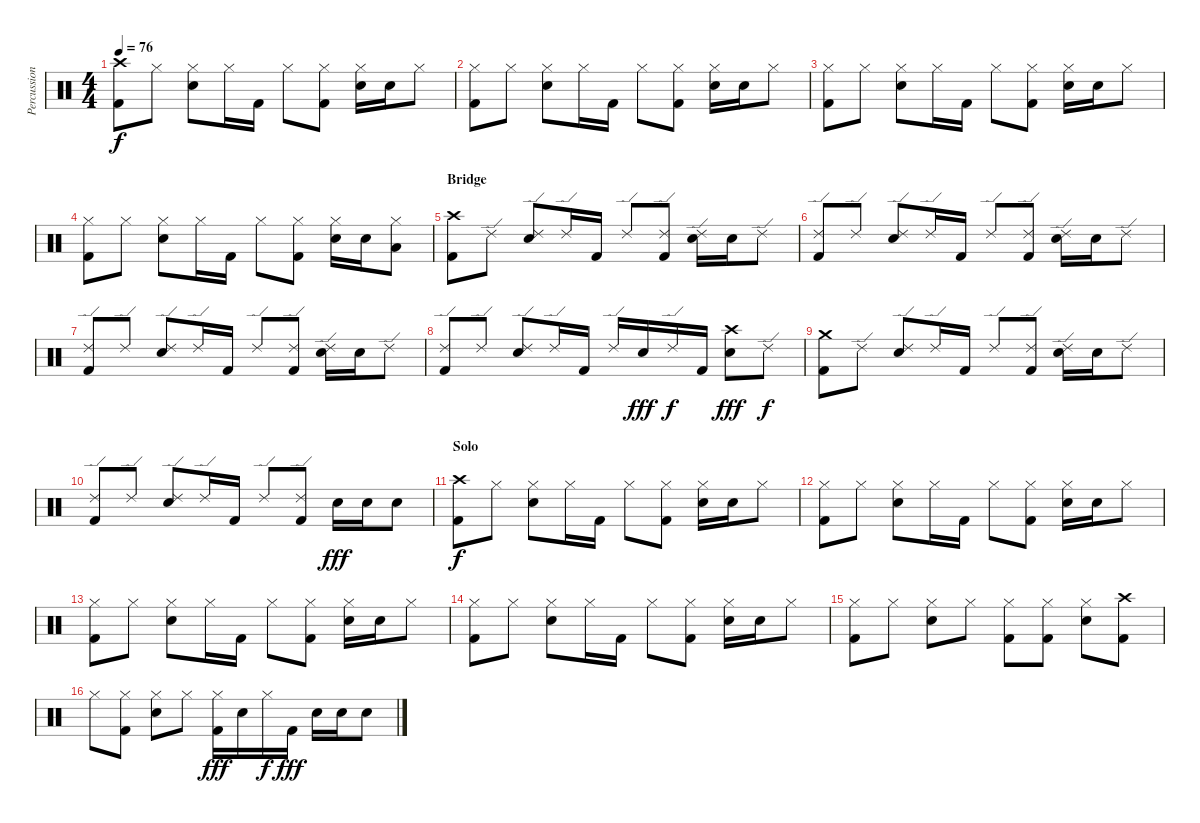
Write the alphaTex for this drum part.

\track ("Percussion" "Percussion") {instrument percussion}
\staff {score}
\articulation defaults
\ts (4 4)
\tempo 76
\clef neutral
\ks c
("Crash high (hit)" "Kick (hit) 2").8{dy f} "Hi-Hat (closed)".8 ("Hi-Hat (closed)" "Electric Snare (hit)").8 "Hi-Hat (closed)".16 "Kick (hit) 2".16 "Hi-Hat (closed)".8 ("Hi-Hat (closed)" "Kick (hit) 2").8 ("Hi-Hat (closed)" "Electric Snare (hit)").16 "Electric Snare (hit)".16 "Hi-Hat (closed)".8 |
("Hi-Hat (closed)" "Kick (hit) 2").8 "Hi-Hat (closed)".8 ("Hi-Hat (closed)" "Electric Snare (hit)").8 "Hi-Hat (closed)".16 "Kick (hit) 2".16 "Hi-Hat (closed)".8 ("Hi-Hat (closed)" "Kick (hit) 2").8 ("Hi-Hat (closed)" "Electric Snare (hit)").16 "Electric Snare (hit)".16 "Hi-Hat (closed)".8 |
("Hi-Hat (closed)" "Kick (hit) 2").8 "Hi-Hat (closed)".8 ("Hi-Hat (closed)" "Electric Snare (hit)").8 "Hi-Hat (closed)".16 "Kick (hit) 2".16 "Hi-Hat (closed)".8 ("Hi-Hat (closed)" "Kick (hit) 2").8 ("Hi-Hat (closed)" "Electric Snare (hit)").16 "Electric Snare (hit)".16 "Hi-Hat (closed)".8 |
("Hi-Hat (closed)" "Kick (hit) 2").8 "Hi-Hat (closed)".8 ("Hi-Hat (closed)" "Electric Snare (hit)").8 "Hi-Hat (closed)".16 "Kick (hit) 2".16 "Hi-Hat (closed)".8 ("Hi-Hat (closed)" "Kick (hit) 2").8 ("Hi-Hat (closed)" "Electric Snare (hit)").16 "Electric Snare (hit)".16 ("Hi-Hat (closed)" "Low Tom (hit)").8 |
\section ("" "Bridge")
("Crash high (hit)" "Kick (hit) 2").8 "Ride (edge) 2".8 ("Ride (edge) 2" "Electric Snare (hit)").8 "Ride (edge) 2".16 "Kick (hit) 2".16 "Ride (edge) 2".8 ("Ride (edge) 2" "Kick (hit) 2").8 ("Ride (edge) 2" "Electric Snare (hit)").16 "Electric Snare (hit)".16 "Ride (edge) 2".8 |
("Ride (edge) 2" "Kick (hit) 2").8 "Ride (edge) 2".8 ("Ride (edge) 2" "Electric Snare (hit)").8 "Ride (edge) 2".16 "Kick (hit) 2".16 "Ride (edge) 2".8 ("Ride (edge) 2" "Kick (hit) 2").8 ("Ride (edge) 2" "Electric Snare (hit)").16 "Electric Snare (hit)".16 "Ride (edge) 2".8 |
("Ride (edge) 2" "Kick (hit) 2").8 "Ride (edge) 2".8 ("Ride (edge) 2" "Electric Snare (hit)").8 "Ride (edge) 2".16 "Kick (hit) 2".16 "Ride (edge) 2".8 ("Ride (edge) 2" "Kick (hit) 2").8 ("Ride (edge) 2" "Electric Snare (hit)").16 "Electric Snare (hit)".16 "Ride (edge) 2".8 |
("Ride (edge) 2" "Kick (hit) 2").8 "Ride (edge) 2".8 ("Ride (edge) 2" "Electric Snare (hit)").8 "Ride (edge) 2".16 "Kick (hit) 2".16 "Ride (edge) 2".16 "Electric Snare (hit)".16{dy fff} "Ride (edge) 2".16{dy f} "Kick (hit) 2".16 ("Crash high (hit)" "Electric Snare (hit)").8{dy fff} "Ride (edge) 2".8{dy f} |
("Crash medium (hit)" "Kick (hit) 2").8 "Ride (edge) 2".8 ("Ride (edge) 2" "Electric Snare (hit)").8 "Ride (edge) 2".16 "Kick (hit) 2".16 "Ride (edge) 2".8 ("Ride (edge) 2" "Kick (hit) 2").8 ("Ride (edge) 2" "Electric Snare (hit)").16 "Electric Snare (hit)".16 "Ride (edge) 2".8 |
("Ride (edge) 2" "Kick (hit) 2").8 "Ride (edge) 2".8 ("Ride (edge) 2" "Electric Snare (hit)").8 "Ride (edge) 2".16 "Kick (hit) 2".16 "Ride (edge) 2".8 ("Ride (edge) 2" "Kick (hit) 2").8 "Electric Snare (hit)".16{dy fff} "Electric Snare (hit)".16 "Electric Snare (hit)".8 |
\section ("" "Solo")
("Crash high (hit)" "Kick (hit) 2").8{dy f} "Hi-Hat (closed)".8 ("Hi-Hat (closed)" "Electric Snare (hit)").8 "Hi-Hat (closed)".16 "Kick (hit) 2".16 "Hi-Hat (closed)".8 ("Hi-Hat (closed)" "Kick (hit) 2").8 ("Hi-Hat (closed)" "Electric Snare (hit)").16 "Electric Snare (hit)".16 "Hi-Hat (closed)".8 |
("Hi-Hat (closed)" "Kick (hit) 2").8 "Hi-Hat (closed)".8 ("Hi-Hat (closed)" "Electric Snare (hit)").8 "Hi-Hat (closed)".16 "Kick (hit) 2".16 "Hi-Hat (closed)".8 ("Hi-Hat (closed)" "Kick (hit) 2").8 ("Hi-Hat (closed)" "Electric Snare (hit)").16 "Electric Snare (hit)".16 "Hi-Hat (closed)".8 |
("Hi-Hat (closed)" "Kick (hit) 2").8 "Hi-Hat (closed)".8 ("Hi-Hat (closed)" "Electric Snare (hit)").8 "Hi-Hat (closed)".16 "Kick (hit) 2".16 "Hi-Hat (closed)".8 ("Hi-Hat (closed)" "Kick (hit) 2").8 ("Hi-Hat (closed)" "Electric Snare (hit)").16 "Electric Snare (hit)".16 "Hi-Hat (closed)".8 |
("Hi-Hat (closed)" "Kick (hit) 2").8 "Hi-Hat (closed)".8 ("Hi-Hat (closed)" "Electric Snare (hit)").8 "Hi-Hat (closed)".16 "Kick (hit) 2".16 "Hi-Hat (closed)".8 ("Hi-Hat (closed)" "Kick (hit) 2").8 ("Hi-Hat (closed)" "Electric Snare (hit)").16 "Electric Snare (hit)".16 "Hi-Hat (closed)".8 |
("Hi-Hat (closed)" "Kick (hit) 2").8 "Hi-Hat (closed)".8 ("Hi-Hat (closed)" "Electric Snare (hit)").8 "Hi-Hat (closed)".8 ("Hi-Hat (closed)" "Kick (hit) 2").8 ("Hi-Hat (closed)" "Kick (hit) 2").8 ("Hi-Hat (closed)" "Electric Snare (hit)").8 ("Crash high (hit)" "Kick (hit) 2").8 |
"Hi-Hat (closed)".8 ("Hi-Hat (closed)" "Kick (hit) 2").8 ("Hi-Hat (closed)" "Electric Snare (hit)").8 "Hi-Hat (closed)".8 ("Hi-Hat (closed)" "Kick (hit) 2").16{dy fff} "Electric Snare (hit)".16 "Hi-Hat (closed)".16{dy f} "Kick (hit) 2".16{dy fff} "Electric Snare (hit)".16 "Electric Snare (hit)".16 "Electric Snare (hit)".8
